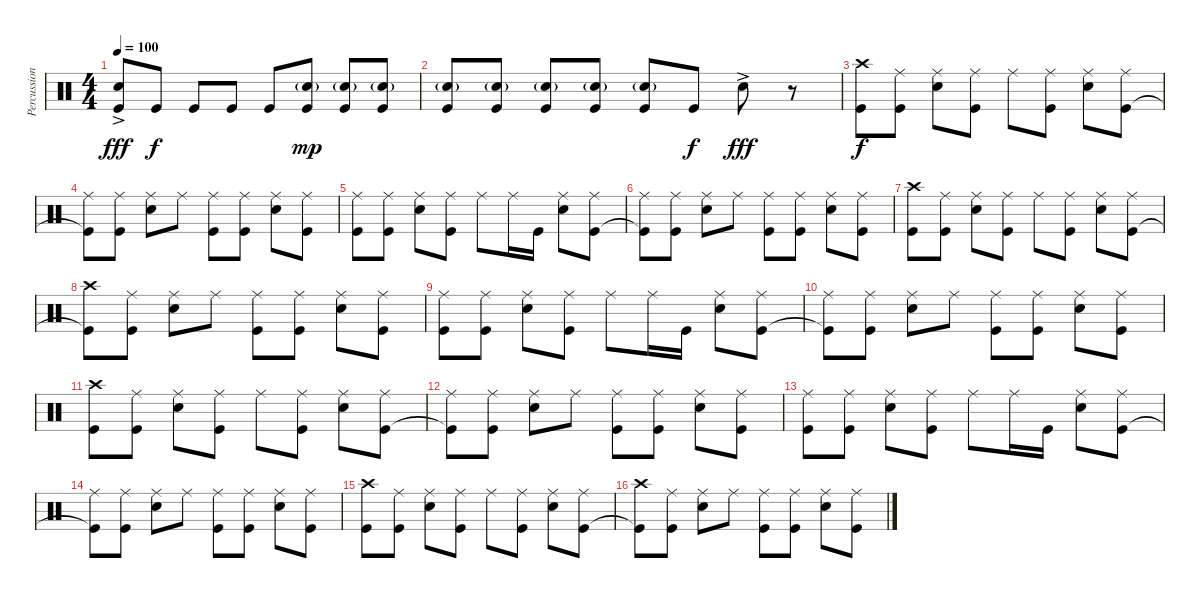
\track ("Percussion" "Percussion") {instrument percussion}
\staff {score}
\articulation defaults
\ts (4 4)
\tempo 100
\clef neutral
\ks c
("Electric Snare (hit)"{ac} "Kick (hit)").8{dy fff} "Kick (hit)".8{dy f} "Kick (hit)".8 "Kick (hit)".8 "Kick (hit)".8 ("Electric Snare (hit)"{g} "Kick (hit)").8{dy mp} ("Electric Snare (hit)"{g} "Kick (hit)").8 ("Electric Snare (hit)"{g} "Kick (hit)").8 |
("Electric Snare (hit)"{g} "Kick (hit)").8 ("Electric Snare (hit)"{g} "Kick (hit)").8 ("Electric Snare (hit)"{g} "Kick (hit)").8 ("Electric Snare (hit)"{g} "Kick (hit)").8 ("Electric Snare (hit)"{g} "Kick (hit)").8 "Kick (hit)".8{dy f} "Electric Snare (hit)"{ac}.8{dy fff} r.8 |
("Crash high (hit)" "Kick (hit)").8{dy f} ("Ride (middle)" "Kick (hit)").8 ("Ride (middle)" "Electric Snare (hit)").8 ("Ride (middle)" "Kick (hit)").8 "Ride (middle)".8 ("Ride (middle)" "Kick (hit)").8 ("Ride (middle)" "Electric Snare (hit)").8 ("Ride (middle)" "Kick (hit)").8 |
("Ride (middle)" "Kick (hit)"{t}).8 ("Ride (middle)" "Kick (hit)").8 ("Ride (middle)" "Electric Snare (hit)").8 "Ride (middle)".8 ("Ride (middle)" "Kick (hit)").8 ("Ride (middle)" "Kick (hit)").8 ("Ride (middle)" "Electric Snare (hit)").8 ("Ride (middle)" "Kick (hit)").8 |
("Ride (middle)" "Kick (hit)").8 ("Ride (middle)" "Kick (hit)").8 ("Ride (middle)" "Electric Snare (hit)").8 ("Ride (middle)" "Kick (hit)").8 "Ride (middle)".8 "Ride (middle)".16 "Kick (hit)".16 ("Ride (middle)" "Electric Snare (hit)").8 ("Ride (middle)" "Kick (hit)").8 |
("Ride (middle)" "Kick (hit)"{t}).8 ("Ride (middle)" "Kick (hit)").8 ("Ride (middle)" "Electric Snare (hit)").8 "Ride (middle)".8 ("Ride (middle)" "Kick (hit)").8 ("Ride (middle)" "Kick (hit)").8 ("Ride (middle)" "Electric Snare (hit)").8 ("Ride (middle)" "Kick (hit)").8 |
("Crash high (hit)" "Kick (hit)").8 ("Ride (middle)" "Kick (hit)").8 ("Ride (middle)" "Electric Snare (hit)").8 ("Ride (middle)" "Kick (hit)").8 "Ride (middle)".8 ("Ride (middle)" "Kick (hit)").8 ("Ride (middle)" "Electric Snare (hit)").8 ("Ride (middle)" "Kick (hit)").8 |
("Crash high (hit)" "Kick (hit)"{t}).8 ("Ride (middle)" "Kick (hit)").8 ("Ride (middle)" "Electric Snare (hit)").8 "Ride (middle)".8 ("Ride (middle)" "Kick (hit)").8 ("Ride (middle)" "Kick (hit)").8 ("Ride (middle)" "Electric Snare (hit)").8 ("Ride (middle)" "Kick (hit)").8 |
("Ride (middle)" "Kick (hit)").8 ("Ride (middle)" "Kick (hit)").8 ("Ride (middle)" "Electric Snare (hit)").8 ("Ride (middle)" "Kick (hit)").8 "Ride (middle)".8 "Ride (middle)".16 "Kick (hit)".16 ("Ride (middle)" "Electric Snare (hit)").8 ("Ride (middle)" "Kick (hit)").8 |
("Ride (middle)" "Kick (hit)"{t}).8 ("Ride (middle)" "Kick (hit)").8 ("Ride (middle)" "Electric Snare (hit)").8 "Ride (middle)".8 ("Ride (middle)" "Kick (hit)").8 ("Ride (middle)" "Kick (hit)").8 ("Ride (middle)" "Electric Snare (hit)").8 ("Ride (middle)" "Kick (hit)").8 |
("Crash high (hit)" "Kick (hit)").8 ("Ride (middle)" "Kick (hit)").8 ("Ride (middle)" "Electric Snare (hit)").8 ("Ride (middle)" "Kick (hit)").8 "Ride (middle)".8 ("Ride (middle)" "Kick (hit)").8 ("Ride (middle)" "Electric Snare (hit)").8 ("Ride (middle)" "Kick (hit)").8 |
("Ride (middle)" "Kick (hit)"{t}).8 ("Ride (middle)" "Kick (hit)").8 ("Ride (middle)" "Electric Snare (hit)").8 "Ride (middle)".8 ("Ride (middle)" "Kick (hit)").8 ("Ride (middle)" "Kick (hit)").8 ("Ride (middle)" "Electric Snare (hit)").8 ("Ride (middle)" "Kick (hit)").8 |
("Ride (middle)" "Kick (hit)").8 ("Ride (middle)" "Kick (hit)").8 ("Ride (middle)" "Electric Snare (hit)").8 ("Ride (middle)" "Kick (hit)").8 "Ride (middle)".8 "Ride (middle)".16 "Kick (hit)".16 ("Ride (middle)" "Electric Snare (hit)").8 ("Ride (middle)" "Kick (hit)").8 |
("Ride (middle)" "Kick (hit)"{t}).8 ("Ride (middle)" "Kick (hit)").8 ("Ride (middle)" "Electric Snare (hit)").8 "Ride (middle)".8 ("Ride (middle)" "Kick (hit)").8 ("Ride (middle)" "Kick (hit)").8 ("Ride (middle)" "Electric Snare (hit)").8 ("Ride (middle)" "Kick (hit)").8 |
("Crash high (hit)" "Kick (hit)").8 ("Ride (middle)" "Kick (hit)").8 ("Ride (middle)" "Electric Snare (hit)").8 ("Ride (middle)" "Kick (hit)").8 "Ride (middle)".8 ("Ride (middle)" "Kick (hit)").8 ("Ride (middle)" "Electric Snare (hit)").8 ("Ride (middle)" "Kick (hit)").8 |
("Crash high (hit)" "Kick (hit)"{t}).8 ("Ride (middle)" "Kick (hit)").8 ("Ride (middle)" "Electric Snare (hit)").8 "Ride (middle)".8 ("Ride (middle)" "Kick (hit)").8 ("Ride (middle)" "Kick (hit)").8 ("Ride (middle)" "Electric Snare (hit)").8 ("Ride (middle)" "Kick (hit)").8
